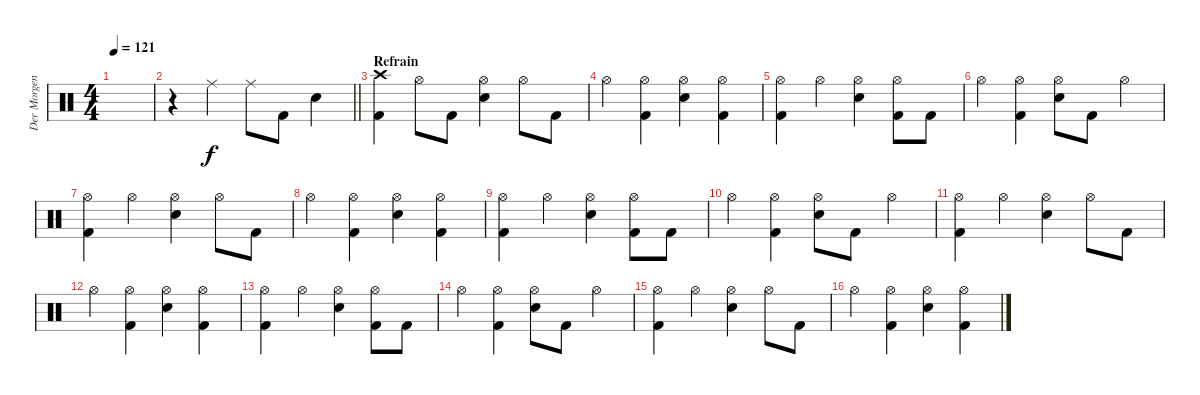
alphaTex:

\track ("Der Morgenstern" "Der Morgen") {instrument percussion}
\staff {score}
\articulation defaults
\ts (4 4)
\tempo 121
\clef neutral
\ks c
|
\barLineRight lightlight
r.4 "Ride (middle)".4 "Ride (middle)".8 "Kick (hit) 2".8 "Electric Snare (hit)".4 |
\section ("" "Refrain")
("Crash high (hit)" "Kick (hit) 2").4 "Hi-Hat (open)".8 "Kick (hit) 2".8 ("Hi-Hat (open)" "Electric Snare (hit)").4 "Hi-Hat (open)".8 "Kick (hit) 2".8 |
"Hi-Hat (open)".4 ("Hi-Hat (open)" "Kick (hit) 2").4 ("Hi-Hat (open)" "Electric Snare (hit)").4 ("Hi-Hat (open)" "Kick (hit) 2").4 |
("Hi-Hat (open)" "Kick (hit) 2").4 "Hi-Hat (open)".4 ("Hi-Hat (open)" "Electric Snare (hit)").4 ("Hi-Hat (open)" "Kick (hit) 2").8 "Kick (hit) 2".8 |
"Hi-Hat (open)".4 ("Hi-Hat (open)" "Kick (hit) 2").4 ("Hi-Hat (open)" "Electric Snare (hit)").8 "Kick (hit) 2".8 "Hi-Hat (open)".4 |
("Hi-Hat (open)" "Kick (hit) 2").4 "Hi-Hat (open)".4 ("Hi-Hat (open)" "Electric Snare (hit)").4 "Hi-Hat (open)".8 "Kick (hit) 2".8 |
"Hi-Hat (open)".4 ("Hi-Hat (open)" "Kick (hit) 2").4 ("Hi-Hat (open)" "Electric Snare (hit)").4 ("Hi-Hat (open)" "Kick (hit) 2").4 |
("Hi-Hat (open)" "Kick (hit) 2").4 "Hi-Hat (open)".4 ("Hi-Hat (open)" "Electric Snare (hit)").4 ("Hi-Hat (open)" "Kick (hit) 2").8 "Kick (hit) 2".8 |
"Hi-Hat (open)".4 ("Hi-Hat (open)" "Kick (hit) 2").4 ("Hi-Hat (open)" "Electric Snare (hit)").8 "Kick (hit) 2".8 "Hi-Hat (open)".4 |
("Hi-Hat (open)" "Kick (hit) 2").4 "Hi-Hat (open)".4 ("Hi-Hat (open)" "Electric Snare (hit)").4 "Hi-Hat (open)".8 "Kick (hit) 2".8 |
"Hi-Hat (open)".4 ("Hi-Hat (open)" "Kick (hit) 2").4 ("Hi-Hat (open)" "Electric Snare (hit)").4 ("Hi-Hat (open)" "Kick (hit) 2").4 |
("Hi-Hat (open)" "Kick (hit) 2").4 "Hi-Hat (open)".4 ("Hi-Hat (open)" "Electric Snare (hit)").4 ("Hi-Hat (open)" "Kick (hit) 2").8 "Kick (hit) 2".8 |
"Hi-Hat (open)".4 ("Hi-Hat (open)" "Kick (hit) 2").4 ("Hi-Hat (open)" "Electric Snare (hit)").8 "Kick (hit) 2".8 "Hi-Hat (open)".4 |
("Hi-Hat (open)" "Kick (hit) 2").4 "Hi-Hat (open)".4 ("Hi-Hat (open)" "Electric Snare (hit)").4 "Hi-Hat (open)".8 "Kick (hit) 2".8 |
"Hi-Hat (open)".4 ("Hi-Hat (open)" "Kick (hit) 2").4 ("Hi-Hat (open)" "Electric Snare (hit)").4 ("Hi-Hat (open)" "Kick (hit) 2").4
